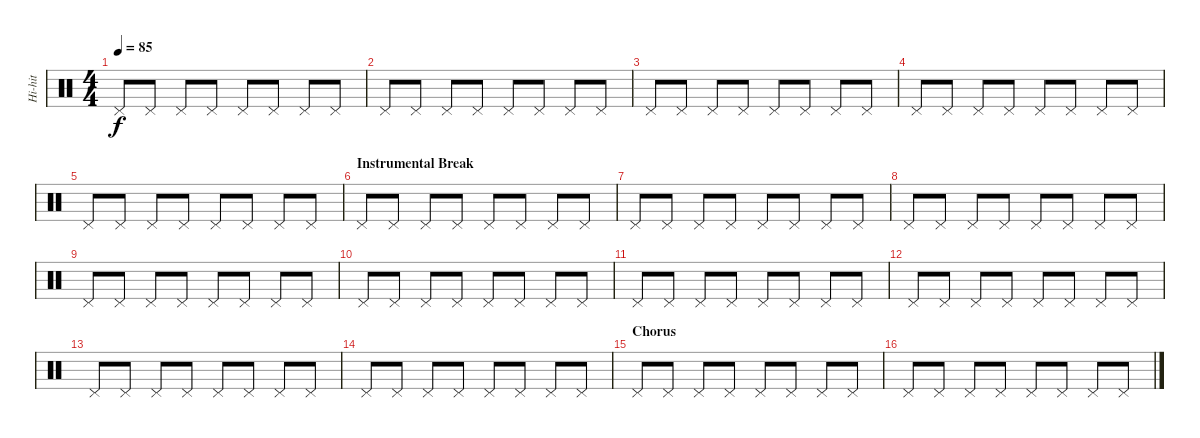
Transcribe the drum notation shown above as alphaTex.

\track ("Hi-hit" "Hi-hit") {instrument percussion}
\staff {score}
\articulation defaults
\ts (4 4)
\tempo 85
\clef neutral
\ks c "Pedal Hi-Hat (hit)".8{dy f} "Pedal Hi-Hat (hit)".8 "Pedal Hi-Hat (hit)".8 "Pedal Hi-Hat (hit)".8 "Pedal Hi-Hat (hit)".8 "Pedal Hi-Hat (hit)".8 "Pedal Hi-Hat (hit)".8 "Pedal Hi-Hat (hit)".8
|
"Pedal Hi-Hat (hit)".8 "Pedal Hi-Hat (hit)".8 "Pedal Hi-Hat (hit)".8 "Pedal Hi-Hat (hit)".8 "Pedal Hi-Hat (hit)".8 "Pedal Hi-Hat (hit)".8 "Pedal Hi-Hat (hit)".8 "Pedal Hi-Hat (hit)".8 |
"Pedal Hi-Hat (hit)".8 "Pedal Hi-Hat (hit)".8 "Pedal Hi-Hat (hit)".8 "Pedal Hi-Hat (hit)".8 "Pedal Hi-Hat (hit)".8 "Pedal Hi-Hat (hit)".8 "Pedal Hi-Hat (hit)".8 "Pedal Hi-Hat (hit)".8 |
"Pedal Hi-Hat (hit)".8 "Pedal Hi-Hat (hit)".8 "Pedal Hi-Hat (hit)".8 "Pedal Hi-Hat (hit)".8 "Pedal Hi-Hat (hit)".8 "Pedal Hi-Hat (hit)".8 "Pedal Hi-Hat (hit)".8 "Pedal Hi-Hat (hit)".8 |
"Pedal Hi-Hat (hit)".8 "Pedal Hi-Hat (hit)".8 "Pedal Hi-Hat (hit)".8 "Pedal Hi-Hat (hit)".8 "Pedal Hi-Hat (hit)".8 "Pedal Hi-Hat (hit)".8 "Pedal Hi-Hat (hit)".8 "Pedal Hi-Hat (hit)".8 |
\section ("" "Instrumental Break")
"Pedal Hi-Hat (hit)".8 "Pedal Hi-Hat (hit)".8 "Pedal Hi-Hat (hit)".8 "Pedal Hi-Hat (hit)".8 "Pedal Hi-Hat (hit)".8 "Pedal Hi-Hat (hit)".8 "Pedal Hi-Hat (hit)".8 "Pedal Hi-Hat (hit)".8 |
"Pedal Hi-Hat (hit)".8 "Pedal Hi-Hat (hit)".8 "Pedal Hi-Hat (hit)".8 "Pedal Hi-Hat (hit)".8 "Pedal Hi-Hat (hit)".8 "Pedal Hi-Hat (hit)".8 "Pedal Hi-Hat (hit)".8 "Pedal Hi-Hat (hit)".8 |
"Pedal Hi-Hat (hit)".8 "Pedal Hi-Hat (hit)".8 "Pedal Hi-Hat (hit)".8 "Pedal Hi-Hat (hit)".8 "Pedal Hi-Hat (hit)".8 "Pedal Hi-Hat (hit)".8 "Pedal Hi-Hat (hit)".8 "Pedal Hi-Hat (hit)".8 |
"Pedal Hi-Hat (hit)".8 "Pedal Hi-Hat (hit)".8 "Pedal Hi-Hat (hit)".8 "Pedal Hi-Hat (hit)".8 "Pedal Hi-Hat (hit)".8 "Pedal Hi-Hat (hit)".8 "Pedal Hi-Hat (hit)".8 "Pedal Hi-Hat (hit)".8 |
"Pedal Hi-Hat (hit)".8 "Pedal Hi-Hat (hit)".8 "Pedal Hi-Hat (hit)".8 "Pedal Hi-Hat (hit)".8 "Pedal Hi-Hat (hit)".8 "Pedal Hi-Hat (hit)".8 "Pedal Hi-Hat (hit)".8 "Pedal Hi-Hat (hit)".8 |
"Pedal Hi-Hat (hit)".8 "Pedal Hi-Hat (hit)".8 "Pedal Hi-Hat (hit)".8 "Pedal Hi-Hat (hit)".8 "Pedal Hi-Hat (hit)".8 "Pedal Hi-Hat (hit)".8 "Pedal Hi-Hat (hit)".8 "Pedal Hi-Hat (hit)".8 |
"Pedal Hi-Hat (hit)".8 "Pedal Hi-Hat (hit)".8 "Pedal Hi-Hat (hit)".8 "Pedal Hi-Hat (hit)".8 "Pedal Hi-Hat (hit)".8 "Pedal Hi-Hat (hit)".8 "Pedal Hi-Hat (hit)".8 "Pedal Hi-Hat (hit)".8 |
"Pedal Hi-Hat (hit)".8 "Pedal Hi-Hat (hit)".8 "Pedal Hi-Hat (hit)".8 "Pedal Hi-Hat (hit)".8 "Pedal Hi-Hat (hit)".8 "Pedal Hi-Hat (hit)".8 "Pedal Hi-Hat (hit)".8 "Pedal Hi-Hat (hit)".8 |
"Pedal Hi-Hat (hit)".8 "Pedal Hi-Hat (hit)".8 "Pedal Hi-Hat (hit)".8 "Pedal Hi-Hat (hit)".8 "Pedal Hi-Hat (hit)".8 "Pedal Hi-Hat (hit)".8 "Pedal Hi-Hat (hit)".8 "Pedal Hi-Hat (hit)".8 |
\section ("" "Chorus")
"Pedal Hi-Hat (hit)".8 "Pedal Hi-Hat (hit)".8 "Pedal Hi-Hat (hit)".8 "Pedal Hi-Hat (hit)".8 "Pedal Hi-Hat (hit)".8 "Pedal Hi-Hat (hit)".8 "Pedal Hi-Hat (hit)".8 "Pedal Hi-Hat (hit)".8 |
"Pedal Hi-Hat (hit)".8 "Pedal Hi-Hat (hit)".8 "Pedal Hi-Hat (hit)".8 "Pedal Hi-Hat (hit)".8 "Pedal Hi-Hat (hit)".8 "Pedal Hi-Hat (hit)".8 "Pedal Hi-Hat (hit)".8 "Pedal Hi-Hat (hit)".8
